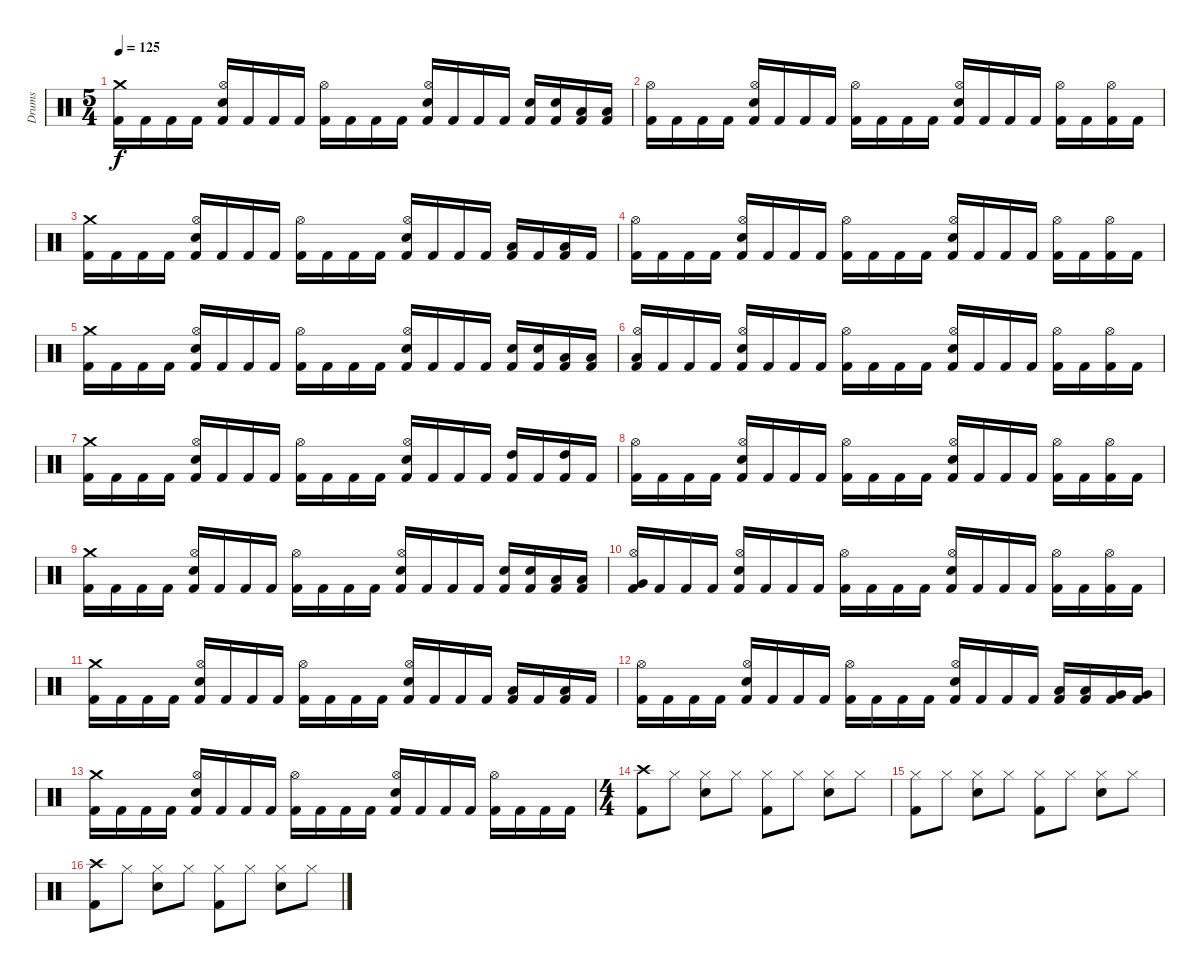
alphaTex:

\track ("Drums" "Drums") {instrument percussion}
\staff {score}
\articulation defaults
\ts (5 4)
\tempo 125
\clef neutral
\ks c
("Crash medium (hit)" "Kick (hit) 2").16{dy f} "Kick (hit) 2".16 "Kick (hit) 2".16 "Kick (hit) 2".16 ("Hi-Hat (open)" "Electric Snare (hit)" "Kick (hit) 2").16 "Kick (hit) 2".16 "Kick (hit) 2".16 "Kick (hit) 2".16 ("Hi-Hat (open)" "Kick (hit) 2").16 "Kick (hit) 2".16 "Kick (hit) 2".16 "Kick (hit) 2".16 ("Hi-Hat (open)" "Electric Snare (hit)" "Kick (hit) 2").16 "Kick (hit) 2".16 "Kick (hit) 2".16 "Kick (hit) 2".16 ("Electric Snare (hit)" "Kick (hit) 2").16 ("Electric Snare (hit)" "Kick (hit) 2").16 ("Low Tom (hit)" "Kick (hit) 2").16 ("Low Tom (hit)" "Kick (hit) 2").16 |
("Hi-Hat (open)" "Kick (hit) 2").16 "Kick (hit) 2".16 "Kick (hit) 2".16 "Kick (hit) 2".16 ("Hi-Hat (open)" "Electric Snare (hit)" "Kick (hit) 2").16 "Kick (hit) 2".16 "Kick (hit) 2".16 "Kick (hit) 2".16 ("Hi-Hat (open)" "Kick (hit) 2").16 "Kick (hit) 2".16 "Kick (hit) 2".16 "Kick (hit) 2".16 ("Hi-Hat (open)" "Electric Snare (hit)" "Kick (hit) 2").16 "Kick (hit) 2".16 "Kick (hit) 2".16 "Kick (hit) 2".16 ("Hi-Hat (open)" "Kick (hit) 2").16 "Kick (hit) 2".16 ("Hi-Hat (open)" "Kick (hit) 2").16 "Kick (hit) 2".16 |
("Crash medium (hit)" "Kick (hit) 2").16 "Kick (hit) 2".16 "Kick (hit) 2".16 "Kick (hit) 2".16 ("Hi-Hat (open)" "Electric Snare (hit)" "Kick (hit) 2").16 "Kick (hit) 2".16 "Kick (hit) 2".16 "Kick (hit) 2".16 ("Hi-Hat (open)" "Kick (hit) 2").16 "Kick (hit) 2".16 "Kick (hit) 2".16 "Kick (hit) 2".16 ("Hi-Hat (open)" "Electric Snare (hit)" "Kick (hit) 2").16 "Kick (hit) 2".16 "Kick (hit) 2".16 "Kick (hit) 2".16 ("Low Tom (hit)" "Kick (hit) 2").16 "Kick (hit) 2".16 ("Low Tom (hit)" "Kick (hit) 2").16 "Kick (hit) 2".16 |
("Hi-Hat (open)" "Kick (hit) 2").16 "Kick (hit) 2".16 "Kick (hit) 2".16 "Kick (hit) 2".16 ("Hi-Hat (open)" "Electric Snare (hit)" "Kick (hit) 2").16 "Kick (hit) 2".16 "Kick (hit) 2".16 "Kick (hit) 2".16 ("Hi-Hat (open)" "Kick (hit) 2").16 "Kick (hit) 2".16 "Kick (hit) 2".16 "Kick (hit) 2".16 ("Hi-Hat (open)" "Electric Snare (hit)" "Kick (hit) 2").16 "Kick (hit) 2".16 "Kick (hit) 2".16 "Kick (hit) 2".16 ("Hi-Hat (open)" "Kick (hit) 2").16 "Kick (hit) 2".16 ("Hi-Hat (open)" "Kick (hit) 2").16 "Kick (hit) 2".16 |
("Crash medium (hit)" "Kick (hit) 2").16 "Kick (hit) 2".16 "Kick (hit) 2".16 "Kick (hit) 2".16 ("Hi-Hat (open)" "Electric Snare (hit)" "Kick (hit) 2").16 "Kick (hit) 2".16 "Kick (hit) 2".16 "Kick (hit) 2".16 ("Hi-Hat (open)" "Kick (hit) 2").16 "Kick (hit) 2".16 "Kick (hit) 2".16 "Kick (hit) 2".16 ("Hi-Hat (open)" "Electric Snare (hit)" "Kick (hit) 2").16 "Kick (hit) 2".16 "Kick (hit) 2".16 "Kick (hit) 2".16 ("Electric Snare (hit)" "Kick (hit) 2").16 ("Electric Snare (hit)" "Kick (hit) 2").16 ("Low Tom (hit)" "Kick (hit) 2").16 ("Low Tom (hit)" "Kick (hit) 2").16 |
("Hi-Hat (open)" "Low Tom (hit)" "Kick (hit) 2").16 "Kick (hit) 2".16 "Kick (hit) 2".16 "Kick (hit) 2".16 ("Hi-Hat (open)" "Electric Snare (hit)" "Kick (hit) 2").16 "Kick (hit) 2".16 "Kick (hit) 2".16 "Kick (hit) 2".16 ("Hi-Hat (open)" "Kick (hit) 2").16 "Kick (hit) 2".16 "Kick (hit) 2".16 "Kick (hit) 2".16 ("Hi-Hat (open)" "Electric Snare (hit)" "Kick (hit) 2").16 "Kick (hit) 2".16 "Kick (hit) 2".16 "Kick (hit) 2".16 ("Hi-Hat (open)" "Kick (hit) 2").16 "Kick (hit) 2".16 ("Hi-Hat (open)" "Kick (hit) 2").16 "Kick (hit) 2".16 |
("Crash medium (hit)" "Kick (hit) 2").16 "Kick (hit) 2".16 "Kick (hit) 2".16 "Kick (hit) 2".16 ("Hi-Hat (open)" "Electric Snare (hit)" "Kick (hit) 2").16 "Kick (hit) 2".16 "Kick (hit) 2".16 "Kick (hit) 2".16 ("Hi-Hat (open)" "Kick (hit) 2").16 "Kick (hit) 2".16 "Kick (hit) 2".16 "Kick (hit) 2".16 ("Hi-Hat (open)" "Electric Snare (hit)" "Kick (hit) 2").16 "Kick (hit) 2".16 "Kick (hit) 2".16 "Kick (hit) 2".16 ("High Tom (hit)" "Kick (hit) 2").16 "Kick (hit) 2".16 ("High Tom (hit)" "Kick (hit) 2").16 "Kick (hit) 2".16 |
("Hi-Hat (open)" "Kick (hit) 2").16 "Kick (hit) 2".16 "Kick (hit) 2".16 "Kick (hit) 2".16 ("Hi-Hat (open)" "Electric Snare (hit)" "Kick (hit) 2").16 "Kick (hit) 2".16 "Kick (hit) 2".16 "Kick (hit) 2".16 ("Hi-Hat (open)" "Kick (hit) 2").16 "Kick (hit) 2".16 "Kick (hit) 2".16 "Kick (hit) 2".16 ("Hi-Hat (open)" "Electric Snare (hit)" "Kick (hit) 2").16 "Kick (hit) 2".16 "Kick (hit) 2".16 "Kick (hit) 2".16 ("Hi-Hat (open)" "Kick (hit) 2").16 "Kick (hit) 2".16 ("Hi-Hat (open)" "Kick (hit) 2").16 "Kick (hit) 2".16 |
("Crash medium (hit)" "Kick (hit) 2").16 "Kick (hit) 2".16 "Kick (hit) 2".16 "Kick (hit) 2".16 ("Hi-Hat (open)" "Electric Snare (hit)" "Kick (hit) 2").16 "Kick (hit) 2".16 "Kick (hit) 2".16 "Kick (hit) 2".16 ("Hi-Hat (open)" "Kick (hit) 2").16 "Kick (hit) 2".16 "Kick (hit) 2".16 "Kick (hit) 2".16 ("Hi-Hat (open)" "Electric Snare (hit)" "Kick (hit) 2").16 "Kick (hit) 2".16 "Kick (hit) 2".16 "Kick (hit) 2".16 ("Electric Snare (hit)" "Kick (hit) 2").16 ("Electric Snare (hit)" "Kick (hit) 2").16 ("Low Tom (hit)" "Kick (hit) 2").16 ("Low Tom (hit)" "Kick (hit) 2").16 |
("Hi-Hat (open)" "Very Low Tom (hit)" "Kick (hit) 2").16 "Kick (hit) 2".16 "Kick (hit) 2".16 "Kick (hit) 2".16 ("Hi-Hat (open)" "Electric Snare (hit)" "Kick (hit) 2").16 "Kick (hit) 2".16 "Kick (hit) 2".16 "Kick (hit) 2".16 ("Hi-Hat (open)" "Kick (hit) 2").16 "Kick (hit) 2".16 "Kick (hit) 2".16 "Kick (hit) 2".16 ("Hi-Hat (open)" "Electric Snare (hit)" "Kick (hit) 2").16 "Kick (hit) 2".16 "Kick (hit) 2".16 "Kick (hit) 2".16 ("Hi-Hat (open)" "Kick (hit) 2").16 "Kick (hit) 2".16 ("Hi-Hat (open)" "Kick (hit) 2").16 "Kick (hit) 2".16 |
("Crash medium (hit)" "Kick (hit) 2").16 "Kick (hit) 2".16 "Kick (hit) 2".16 "Kick (hit) 2".16 ("Hi-Hat (open)" "Electric Snare (hit)" "Kick (hit) 2").16 "Kick (hit) 2".16 "Kick (hit) 2".16 "Kick (hit) 2".16 ("Hi-Hat (open)" "Kick (hit) 2").16 "Kick (hit) 2".16 "Kick (hit) 2".16 "Kick (hit) 2".16 ("Hi-Hat (open)" "Electric Snare (hit)" "Kick (hit) 2").16 "Kick (hit) 2".16 "Kick (hit) 2".16 "Kick (hit) 2".16 ("Low Tom (hit)" "Kick (hit) 2").16 "Kick (hit) 2".16 ("Low Tom (hit)" "Kick (hit) 2").16 "Kick (hit) 2".16 |
("Hi-Hat (open)" "Kick (hit) 2").16 "Kick (hit) 2".16 "Kick (hit) 2".16 "Kick (hit) 2".16 ("Hi-Hat (open)" "Electric Snare (hit)" "Kick (hit) 2").16 "Kick (hit) 2".16 "Kick (hit) 2".16 "Kick (hit) 2".16 ("Hi-Hat (open)" "Kick (hit) 2").16 "Kick (hit) 2".16 "Kick (hit) 2".16 "Kick (hit) 2".16 ("Hi-Hat (open)" "Electric Snare (hit)" "Kick (hit) 2").16 "Kick (hit) 2".16 "Kick (hit) 2".16 "Kick (hit) 2".16 ("Low Tom (hit)" "Kick (hit) 2").16 ("Low Tom (hit)" "Kick (hit) 2").16 ("Very Low Tom (hit)" "Kick (hit) 2").16 ("Very Low Tom (hit)" "Kick (hit) 2").16 |
("Crash medium (hit)" "Kick (hit) 2").16 "Kick (hit) 2".16 "Kick (hit) 2".16 "Kick (hit) 2".16 ("Hi-Hat (open)" "Electric Snare (hit)" "Kick (hit) 2").16 "Kick (hit) 2".16 "Kick (hit) 2".16 "Kick (hit) 2".16 ("Hi-Hat (open)" "Kick (hit) 2").16 "Kick (hit) 2".16 "Kick (hit) 2".16 "Kick (hit) 2".16 ("Hi-Hat (open)" "Electric Snare (hit)" "Kick (hit) 2").16 "Kick (hit) 2".16 "Kick (hit) 2".16 "Kick (hit) 2".16 ("Hi-Hat (open)" "Kick (hit) 2").16 "Kick (hit) 2".16 "Kick (hit) 2".16 "Kick (hit) 2".16 |
\ts (4 4)
("Crash high (hit)" "Kick (hit) 2").8 "Hi-Hat (closed)".8 ("Hi-Hat (closed)" "Electric Snare (hit)").8 "Hi-Hat (closed)".8 ("Hi-Hat (closed)" "Kick (hit) 2").8 "Hi-Hat (closed)".8 ("Hi-Hat (closed)" "Electric Snare (hit)").8 "Hi-Hat (closed)".8 |
("Hi-Hat (closed)" "Kick (hit) 2").8 "Hi-Hat (closed)".8 ("Hi-Hat (closed)" "Electric Snare (hit)").8 "Hi-Hat (closed)".8 ("Hi-Hat (closed)" "Kick (hit) 2").8 "Hi-Hat (closed)".8 ("Hi-Hat (closed)" "Electric Snare (hit)").8 "Hi-Hat (closed)".8 |
("Crash high (hit)" "Kick (hit) 2").8 "Hi-Hat (closed)".8 ("Hi-Hat (closed)" "Electric Snare (hit)").8 "Hi-Hat (closed)".8 ("Hi-Hat (closed)" "Kick (hit) 2").8 "Hi-Hat (closed)".8 ("Hi-Hat (closed)" "Electric Snare (hit)").8 "Hi-Hat (closed)".8
